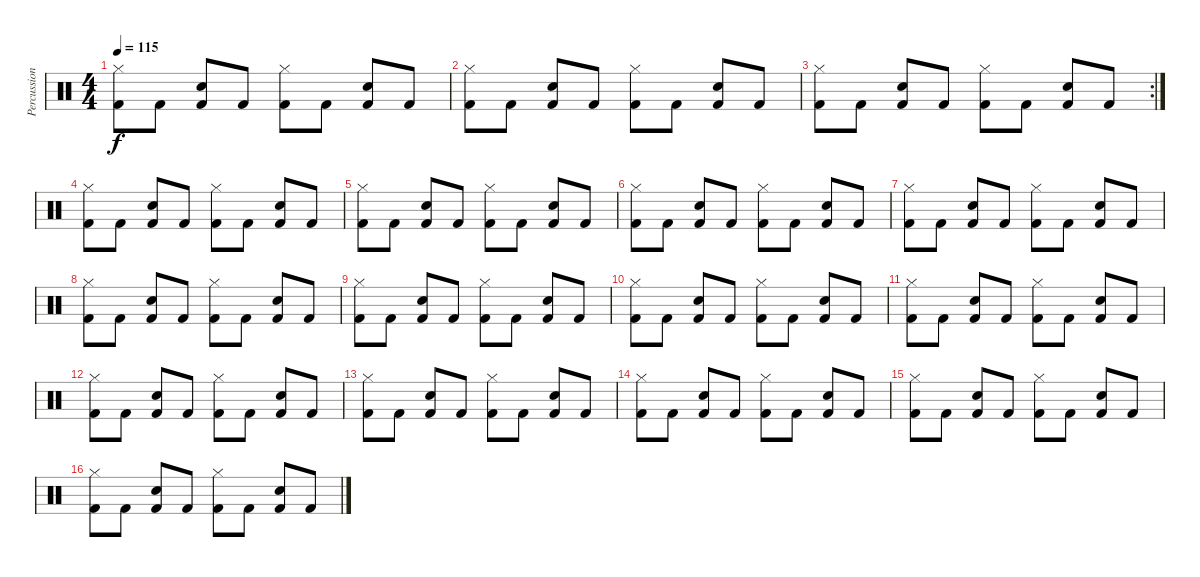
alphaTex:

\track ("Percussion" "Percussion") {instrument percussion}
\staff {score}
\articulation defaults
\ts (4 4)
\tempo 115
\clef neutral
\ks c
("Kick (hit) 2" "Hi-Hat (closed)").8{dy f} "Kick (hit) 2".8 ("Kick (hit) 2" "Snare (hit) 2").8 "Kick (hit) 2".8 ("Kick (hit) 2" "Hi-Hat (closed)").8 "Kick (hit) 2".8 ("Kick (hit) 2" "Snare (hit) 2").8 "Kick (hit) 2".8 |
("Kick (hit) 2" "Hi-Hat (closed)").8 "Kick (hit) 2".8 ("Kick (hit) 2" "Snare (hit) 2").8 "Kick (hit) 2".8 ("Kick (hit) 2" "Hi-Hat (closed)").8 "Kick (hit) 2".8 ("Kick (hit) 2" "Snare (hit) 2").8 "Kick (hit) 2".8 |
\rc 2
("Kick (hit) 2" "Hi-Hat (closed)").8 "Kick (hit) 2".8 ("Kick (hit) 2" "Snare (hit) 2").8 "Kick (hit) 2".8 ("Kick (hit) 2" "Hi-Hat (closed)").8 "Kick (hit) 2".8 ("Kick (hit) 2" "Snare (hit) 2").8 "Kick (hit) 2".8 |
("Kick (hit) 2" "Hi-Hat (closed)").8 "Kick (hit) 2".8 ("Kick (hit) 2" "Snare (hit) 2").8 "Kick (hit) 2".8 ("Kick (hit) 2" "Hi-Hat (closed)").8 "Kick (hit) 2".8 ("Kick (hit) 2" "Snare (hit) 2").8 "Kick (hit) 2".8 |
("Kick (hit) 2" "Hi-Hat (closed)").8 "Kick (hit) 2".8 ("Kick (hit) 2" "Snare (hit) 2").8 "Kick (hit) 2".8 ("Kick (hit) 2" "Hi-Hat (closed)").8 "Kick (hit) 2".8 ("Kick (hit) 2" "Snare (hit) 2").8 "Kick (hit) 2".8 |
("Kick (hit) 2" "Hi-Hat (closed)").8 "Kick (hit) 2".8 ("Kick (hit) 2" "Snare (hit) 2").8 "Kick (hit) 2".8 ("Kick (hit) 2" "Hi-Hat (closed)").8 "Kick (hit) 2".8 ("Kick (hit) 2" "Snare (hit) 2").8 "Kick (hit) 2".8 |
("Kick (hit) 2" "Hi-Hat (closed)").8 "Kick (hit) 2".8 ("Kick (hit) 2" "Snare (hit) 2").8 "Kick (hit) 2".8 ("Kick (hit) 2" "Hi-Hat (closed)").8 "Kick (hit) 2".8 ("Kick (hit) 2" "Snare (hit) 2").8 "Kick (hit) 2".8 |
("Kick (hit) 2" "Hi-Hat (closed)").8 "Kick (hit) 2".8 ("Kick (hit) 2" "Snare (hit) 2").8 "Kick (hit) 2".8 ("Kick (hit) 2" "Hi-Hat (closed)").8 "Kick (hit) 2".8 ("Kick (hit) 2" "Snare (hit) 2").8 "Kick (hit) 2".8 |
("Kick (hit) 2" "Hi-Hat (closed)").8 "Kick (hit) 2".8 ("Kick (hit) 2" "Snare (hit) 2").8 "Kick (hit) 2".8 ("Kick (hit) 2" "Hi-Hat (closed)").8 "Kick (hit) 2".8 ("Kick (hit) 2" "Snare (hit) 2").8 "Kick (hit) 2".8 |
("Kick (hit) 2" "Hi-Hat (closed)").8 "Kick (hit) 2".8 ("Kick (hit) 2" "Snare (hit) 2").8 "Kick (hit) 2".8 ("Kick (hit) 2" "Hi-Hat (closed)").8 "Kick (hit) 2".8 ("Kick (hit) 2" "Snare (hit) 2").8 "Kick (hit) 2".8 |
("Kick (hit) 2" "Hi-Hat (closed)").8 "Kick (hit) 2".8 ("Kick (hit) 2" "Snare (hit) 2").8 "Kick (hit) 2".8 ("Kick (hit) 2" "Hi-Hat (closed)").8 "Kick (hit) 2".8 ("Kick (hit) 2" "Snare (hit) 2").8 "Kick (hit) 2".8 |
("Kick (hit) 2" "Hi-Hat (closed)").8 "Kick (hit) 2".8 ("Kick (hit) 2" "Snare (hit) 2").8 "Kick (hit) 2".8 ("Kick (hit) 2" "Hi-Hat (closed)").8 "Kick (hit) 2".8 ("Kick (hit) 2" "Snare (hit) 2").8 "Kick (hit) 2".8 |
("Kick (hit) 2" "Hi-Hat (closed)").8 "Kick (hit) 2".8 ("Kick (hit) 2" "Snare (hit) 2").8 "Kick (hit) 2".8 ("Kick (hit) 2" "Hi-Hat (closed)").8 "Kick (hit) 2".8 ("Kick (hit) 2" "Snare (hit) 2").8 "Kick (hit) 2".8 |
("Kick (hit) 2" "Hi-Hat (closed)").8 "Kick (hit) 2".8 ("Kick (hit) 2" "Snare (hit) 2").8 "Kick (hit) 2".8 ("Kick (hit) 2" "Hi-Hat (closed)").8 "Kick (hit) 2".8 ("Kick (hit) 2" "Snare (hit) 2").8 "Kick (hit) 2".8 |
("Kick (hit) 2" "Hi-Hat (closed)").8 "Kick (hit) 2".8 ("Kick (hit) 2" "Snare (hit) 2").8 "Kick (hit) 2".8 ("Kick (hit) 2" "Hi-Hat (closed)").8 "Kick (hit) 2".8 ("Kick (hit) 2" "Snare (hit) 2").8 "Kick (hit) 2".8 |
("Kick (hit) 2" "Hi-Hat (closed)").8 "Kick (hit) 2".8 ("Kick (hit) 2" "Snare (hit) 2").8 "Kick (hit) 2".8 ("Kick (hit) 2" "Hi-Hat (closed)").8 "Kick (hit) 2".8 ("Kick (hit) 2" "Snare (hit) 2").8 "Kick (hit) 2".8
